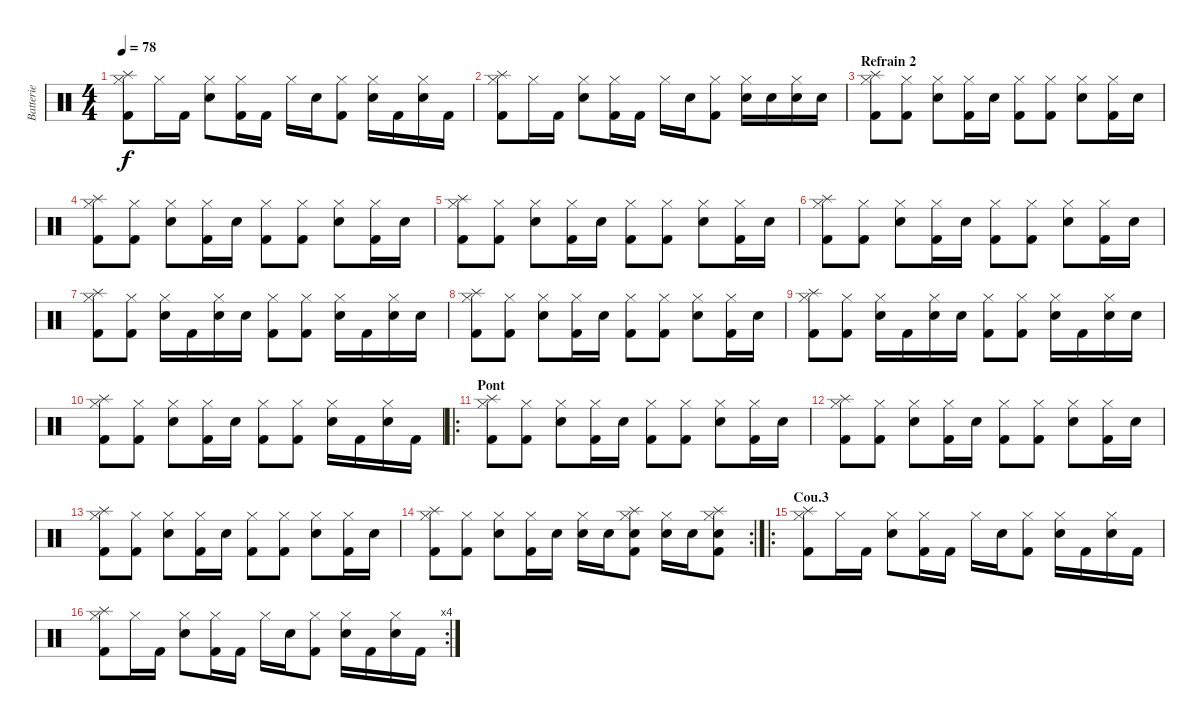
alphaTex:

\track ("Batterie" "Batterie") {instrument percussion}
\staff {score}
\articulation defaults
\ts (4 4)
\tempo 78
\clef neutral
\ks c
("Splash (hit)" "Hi-Hat (closed)" "Kick (hit) 2").8{dy f} "Hi-Hat (closed)".16 "Kick (hit) 2".16 ("Hi-Hat (closed)" "Snare (hit) 2").8 ("Hi-Hat (closed)" "Kick (hit) 2").16 "Kick (hit) 2".16 "Hi-Hat (closed)".16 "Snare (hit) 2".16 ("Hi-Hat (closed)" "Kick (hit) 2").8 ("Hi-Hat (closed)" "Snare (hit) 2").16 "Kick (hit) 2".16 ("Hi-Hat (closed)" "Snare (hit) 2").16 "Kick (hit) 2".16 |
("Splash (hit)" "Hi-Hat (closed)" "Kick (hit) 2").8 "Hi-Hat (closed)".16 "Kick (hit) 2".16 ("Hi-Hat (closed)" "Snare (hit) 2").8 ("Hi-Hat (closed)" "Kick (hit) 2").16 "Kick (hit) 2".16 "Hi-Hat (closed)".16 "Snare (hit) 2".16 ("Hi-Hat (closed)" "Kick (hit) 2").8 ("Hi-Hat (closed)" "Snare (hit) 2").16 "Snare (hit) 2".16 ("Hi-Hat (closed)" "Snare (hit) 2").16 "Snare (hit) 2".16 |
\section ("" "Refrain 2")
("Splash (hit)" "Hi-Hat (closed)" "Kick (hit) 2").8 ("Hi-Hat (closed)" "Kick (hit) 2").8 ("Hi-Hat (closed)" "Snare (hit) 2").8 ("Hi-Hat (closed)" "Kick (hit) 2").16 "Snare (hit) 2".16 ("Hi-Hat (closed)" "Kick (hit) 2").8 ("Hi-Hat (closed)" "Kick (hit) 2").8 ("Hi-Hat (closed)" "Snare (hit) 2").8 ("Hi-Hat (closed)" "Kick (hit) 2").16 "Snare (hit) 2".16 |
("Splash (hit)" "Hi-Hat (closed)" "Kick (hit) 2").8 ("Hi-Hat (closed)" "Kick (hit) 2").8 ("Hi-Hat (closed)" "Snare (hit) 2").8 ("Hi-Hat (closed)" "Kick (hit) 2").16 "Snare (hit) 2".16 ("Hi-Hat (closed)" "Kick (hit) 2").8 ("Hi-Hat (closed)" "Kick (hit) 2").8 ("Hi-Hat (closed)" "Snare (hit) 2").8 ("Hi-Hat (closed)" "Kick (hit) 2").16 "Snare (hit) 2".16 |
("Splash (hit)" "Hi-Hat (closed)" "Kick (hit) 2").8 ("Hi-Hat (closed)" "Kick (hit) 2").8 ("Hi-Hat (closed)" "Snare (hit) 2").8 ("Hi-Hat (closed)" "Kick (hit) 2").16 "Snare (hit) 2".16 ("Hi-Hat (closed)" "Kick (hit) 2").8 ("Hi-Hat (closed)" "Kick (hit) 2").8 ("Hi-Hat (closed)" "Snare (hit) 2").8 ("Hi-Hat (closed)" "Kick (hit) 2").16 "Snare (hit) 2".16 |
("Splash (hit)" "Hi-Hat (closed)" "Kick (hit) 2").8 ("Hi-Hat (closed)" "Kick (hit) 2").8 ("Hi-Hat (closed)" "Snare (hit) 2").8 ("Hi-Hat (closed)" "Kick (hit) 2").16 "Snare (hit) 2".16 ("Hi-Hat (closed)" "Kick (hit) 2").8 ("Hi-Hat (closed)" "Kick (hit) 2").8 ("Hi-Hat (closed)" "Snare (hit) 2").8 ("Hi-Hat (closed)" "Kick (hit) 2").16 "Snare (hit) 2".16 |
("Splash (hit)" "Hi-Hat (closed)" "Kick (hit) 2").8 ("Hi-Hat (closed)" "Kick (hit) 2").8 ("Hi-Hat (closed)" "Snare (hit) 2").16 "Kick (hit) 2".16 ("Hi-Hat (closed)" "Snare (hit) 2").16 "Snare (hit) 2".16 ("Hi-Hat (closed)" "Kick (hit) 2").8 ("Hi-Hat (closed)" "Kick (hit) 2").8 ("Hi-Hat (closed)" "Snare (hit) 2").16 "Kick (hit) 2".16 ("Hi-Hat (closed)" "Snare (hit) 2").16 "Snare (hit) 2".16 |
("Splash (hit)" "Hi-Hat (closed)" "Kick (hit) 2").8 ("Hi-Hat (closed)" "Kick (hit) 2").8 ("Hi-Hat (closed)" "Snare (hit) 2").8 ("Hi-Hat (closed)" "Kick (hit) 2").16 "Snare (hit) 2".16 ("Hi-Hat (closed)" "Kick (hit) 2").8 ("Hi-Hat (closed)" "Kick (hit) 2").8 ("Hi-Hat (closed)" "Snare (hit) 2").8 ("Hi-Hat (closed)" "Kick (hit) 2").16 "Snare (hit) 2".16 |
("Splash (hit)" "Hi-Hat (closed)" "Kick (hit) 2").8 ("Hi-Hat (closed)" "Kick (hit) 2").8 ("Hi-Hat (closed)" "Snare (hit) 2").16 "Kick (hit) 2".16 ("Hi-Hat (closed)" "Snare (hit) 2").16 "Snare (hit) 2".16 ("Hi-Hat (closed)" "Kick (hit) 2").8 ("Hi-Hat (closed)" "Kick (hit) 2").8 ("Hi-Hat (closed)" "Snare (hit) 2").16 "Kick (hit) 2".16 ("Hi-Hat (closed)" "Snare (hit) 2").16 "Snare (hit) 2".16 |
("Splash (hit)" "Hi-Hat (closed)" "Kick (hit) 2").8 ("Hi-Hat (closed)" "Kick (hit) 2").8 ("Hi-Hat (closed)" "Snare (hit) 2").8 ("Hi-Hat (closed)" "Kick (hit) 2").16 "Snare (hit) 2".16 ("Hi-Hat (closed)" "Kick (hit) 2").8 ("Hi-Hat (closed)" "Kick (hit) 2").8 ("Hi-Hat (closed)" "Snare (hit) 2").16 "Kick (hit) 2".16 ("Hi-Hat (closed)" "Snare (hit) 2").16 "Kick (hit) 2".16 |
\ro
\section ("" "Pont")
("Splash (hit)" "Hi-Hat (closed)" "Kick (hit) 2").8 ("Hi-Hat (closed)" "Kick (hit) 2").8 ("Hi-Hat (closed)" "Snare (hit) 2").8 ("Hi-Hat (closed)" "Kick (hit) 2").16 "Snare (hit) 2".16 ("Hi-Hat (closed)" "Kick (hit) 2").8 ("Hi-Hat (closed)" "Kick (hit) 2").8 ("Hi-Hat (closed)" "Snare (hit) 2").8 ("Hi-Hat (closed)" "Kick (hit) 2").16 "Snare (hit) 2".16 |
("Splash (hit)" "Hi-Hat (closed)" "Kick (hit) 2").8 ("Hi-Hat (closed)" "Kick (hit) 2").8 ("Hi-Hat (closed)" "Snare (hit) 2").8 ("Hi-Hat (closed)" "Kick (hit) 2").16 "Snare (hit) 2".16 ("Hi-Hat (closed)" "Kick (hit) 2").8 ("Hi-Hat (closed)" "Kick (hit) 2").8 ("Hi-Hat (closed)" "Snare (hit) 2").8 ("Hi-Hat (closed)" "Kick (hit) 2").16 "Snare (hit) 2".16 |
("Splash (hit)" "Hi-Hat (closed)" "Kick (hit) 2").8 ("Hi-Hat (closed)" "Kick (hit) 2").8 ("Hi-Hat (closed)" "Snare (hit) 2").8 ("Hi-Hat (closed)" "Kick (hit) 2").16 "Snare (hit) 2".16 ("Hi-Hat (closed)" "Kick (hit) 2").8 ("Hi-Hat (closed)" "Kick (hit) 2").8 ("Hi-Hat (closed)" "Snare (hit) 2").8 ("Hi-Hat (closed)" "Kick (hit) 2").16 "Snare (hit) 2".16 |
\rc 2
("Splash (hit)" "Hi-Hat (closed)" "Kick (hit) 2").8 ("Hi-Hat (closed)" "Kick (hit) 2").8 ("Hi-Hat (closed)" "Snare (hit) 2").8 ("Hi-Hat (closed)" "Kick (hit) 2").16 "Snare (hit) 2".16 ("Hi-Hat (closed)" "Snare (hit) 2").16 "Snare (hit) 2".16 ("Splash (hit)" "Hi-Hat (closed)" "Snare (hit) 2" "Kick (hit) 2").8 ("Hi-Hat (closed)" "Snare (hit) 2").16 "Snare (hit) 2".16 ("Splash (hit)" "Hi-Hat (closed)" "Snare (hit) 2" "Kick (hit) 2").8 |
\ro
\section ("" "Cou.3")
("Splash (hit)" "Hi-Hat (closed)" "Kick (hit) 2").8 "Hi-Hat (closed)".16 "Kick (hit) 2".16 ("Hi-Hat (closed)" "Snare (hit) 2").8 ("Hi-Hat (closed)" "Kick (hit) 2").16 "Kick (hit) 2".16 "Hi-Hat (closed)".16 "Snare (hit) 2".16 ("Hi-Hat (closed)" "Kick (hit) 2").8 ("Hi-Hat (closed)" "Snare (hit) 2").16 "Kick (hit) 2".16 ("Hi-Hat (closed)" "Snare (hit) 2").16 "Kick (hit) 2".16 |
\rc 4
("Splash (hit)" "Hi-Hat (closed)" "Kick (hit) 2").8 "Hi-Hat (closed)".16 "Kick (hit) 2".16 ("Hi-Hat (closed)" "Snare (hit) 2").8 ("Hi-Hat (closed)" "Kick (hit) 2").16 "Kick (hit) 2".16 "Hi-Hat (closed)".16 "Snare (hit) 2".16 ("Hi-Hat (closed)" "Kick (hit) 2").8 ("Hi-Hat (closed)" "Snare (hit) 2").16 "Kick (hit) 2".16 ("Hi-Hat (closed)" "Snare (hit) 2").16 "Kick (hit) 2".16
